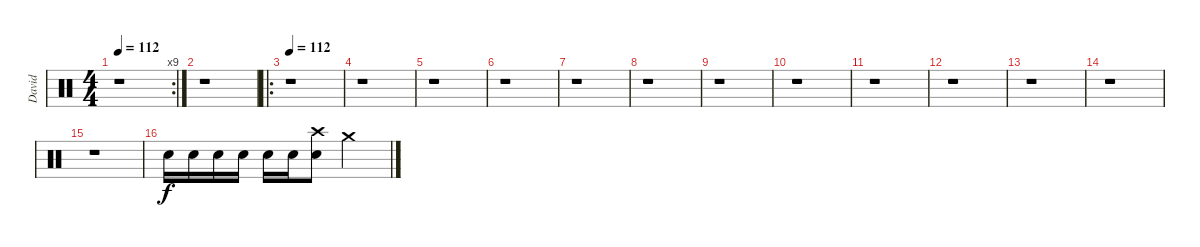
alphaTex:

\track ("David" "David") {instrument percussion}
\staff {score}
\articulation defaults
\rc 9
\ts (4 4)
\tempo 112
\tempo 90
\tempo 112
\clef neutral
\ks c
r.1{dy f} |
r.1 |
\ro
\tempo 112
r.1 |
r.1 |
r.1 |
r.1 |
r.1 |
r.1 |
r.1 |
r.1 |
r.1 |
r.1 |
r.1 |
r.1 |
r.1 |
"Snare (hit) 2".16 "Snare (hit) 2".16 "Snare (hit) 2".16 "Snare (hit) 2".16 "Snare (hit) 2".16 "Snare (hit) 2".16 ("Crash high (hit)" "Snare (hit) 2").8 "Crash medium (hit)".2
